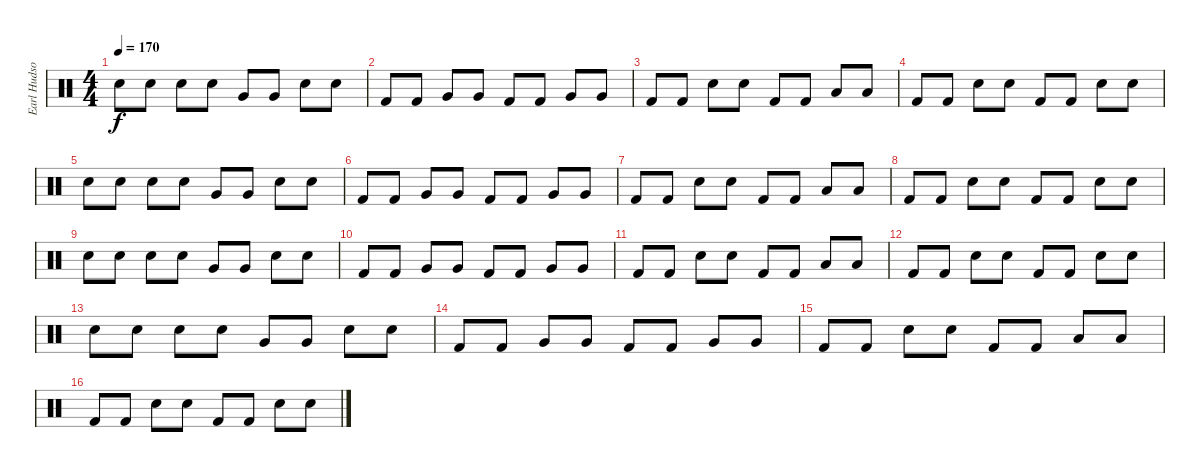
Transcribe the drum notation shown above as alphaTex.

\track ("Earl Hudson" "Earl Hudso") {instrument percussion}
\staff {score}
\articulation defaults
\ts (4 4)
\tempo 170
\clef neutral
\ks c "Snare (hit) 2".8{dy f} "Snare (hit) 2".8 "Electric Snare (hit)".8 "Electric Snare (hit)".8 "Very Low Tom (hit)".8 "Very Low Tom (hit)".8 "Electric Snare (hit)".8 "Electric Snare (hit)".8
|
"Kick (hit) 2".8 "Kick (hit) 2".8 "Very Low Tom (hit)".8 "Very Low Tom (hit)".8 "Kick (hit) 2".8 "Kick (hit) 2".8 "Very Low Tom (hit)".8 "Very Low Tom (hit)".8 |
"Kick (hit) 2".8 "Kick (hit) 2".8 "Electric Snare (hit)".8 "Electric Snare (hit)".8 "Kick (hit) 2".8 "Kick (hit) 2".8 "Low Tom (hit)".8 "Low Tom (hit)".8 |
"Kick (hit) 2".8 "Kick (hit) 2".8 "Snare (hit) 2".8 "Snare (hit) 2".8 "Kick (hit) 2".8 "Kick (hit) 2".8 "Snare (hit) 2".8 "Snare (hit) 2".8 |
"Snare (hit) 2".8 "Snare (hit) 2".8 "Electric Snare (hit)".8 "Electric Snare (hit)".8 "Very Low Tom (hit)".8 "Very Low Tom (hit)".8 "Electric Snare (hit)".8 "Electric Snare (hit)".8 |
"Kick (hit) 2".8 "Kick (hit) 2".8 "Very Low Tom (hit)".8 "Very Low Tom (hit)".8 "Kick (hit) 2".8 "Kick (hit) 2".8 "Very Low Tom (hit)".8 "Very Low Tom (hit)".8 |
"Kick (hit) 2".8 "Kick (hit) 2".8 "Electric Snare (hit)".8 "Electric Snare (hit)".8 "Kick (hit) 2".8 "Kick (hit) 2".8 "Low Tom (hit)".8 "Low Tom (hit)".8 |
"Kick (hit) 2".8 "Kick (hit) 2".8 "Snare (hit) 2".8 "Snare (hit) 2".8 "Kick (hit) 2".8 "Kick (hit) 2".8 "Snare (hit) 2".8 "Snare (hit) 2".8 |
"Snare (hit) 2".8 "Snare (hit) 2".8 "Electric Snare (hit)".8 "Electric Snare (hit)".8 "Very Low Tom (hit)".8 "Very Low Tom (hit)".8 "Electric Snare (hit)".8 "Electric Snare (hit)".8 |
"Kick (hit) 2".8 "Kick (hit) 2".8 "Very Low Tom (hit)".8 "Very Low Tom (hit)".8 "Kick (hit) 2".8 "Kick (hit) 2".8 "Very Low Tom (hit)".8 "Very Low Tom (hit)".8 |
"Kick (hit) 2".8 "Kick (hit) 2".8 "Electric Snare (hit)".8 "Electric Snare (hit)".8 "Kick (hit) 2".8 "Kick (hit) 2".8 "Low Tom (hit)".8 "Low Tom (hit)".8 |
"Kick (hit) 2".8 "Kick (hit) 2".8 "Snare (hit) 2".8 "Snare (hit) 2".8 "Kick (hit) 2".8 "Kick (hit) 2".8 "Snare (hit) 2".8 "Snare (hit) 2".8 |
"Snare (hit) 2".8 "Snare (hit) 2".8 "Electric Snare (hit)".8 "Electric Snare (hit)".8 "Very Low Tom (hit)".8 "Very Low Tom (hit)".8 "Electric Snare (hit)".8 "Electric Snare (hit)".8 |
"Kick (hit) 2".8 "Kick (hit) 2".8 "Very Low Tom (hit)".8 "Very Low Tom (hit)".8 "Kick (hit) 2".8 "Kick (hit) 2".8 "Very Low Tom (hit)".8 "Very Low Tom (hit)".8 |
"Kick (hit) 2".8 "Kick (hit) 2".8 "Electric Snare (hit)".8 "Electric Snare (hit)".8 "Kick (hit) 2".8 "Kick (hit) 2".8 "Low Tom (hit)".8 "Low Tom (hit)".8 |
"Kick (hit) 2".8 "Kick (hit) 2".8 "Snare (hit) 2".8 "Snare (hit) 2".8 "Kick (hit) 2".8 "Kick (hit) 2".8 "Snare (hit) 2".8 "Snare (hit) 2".8
